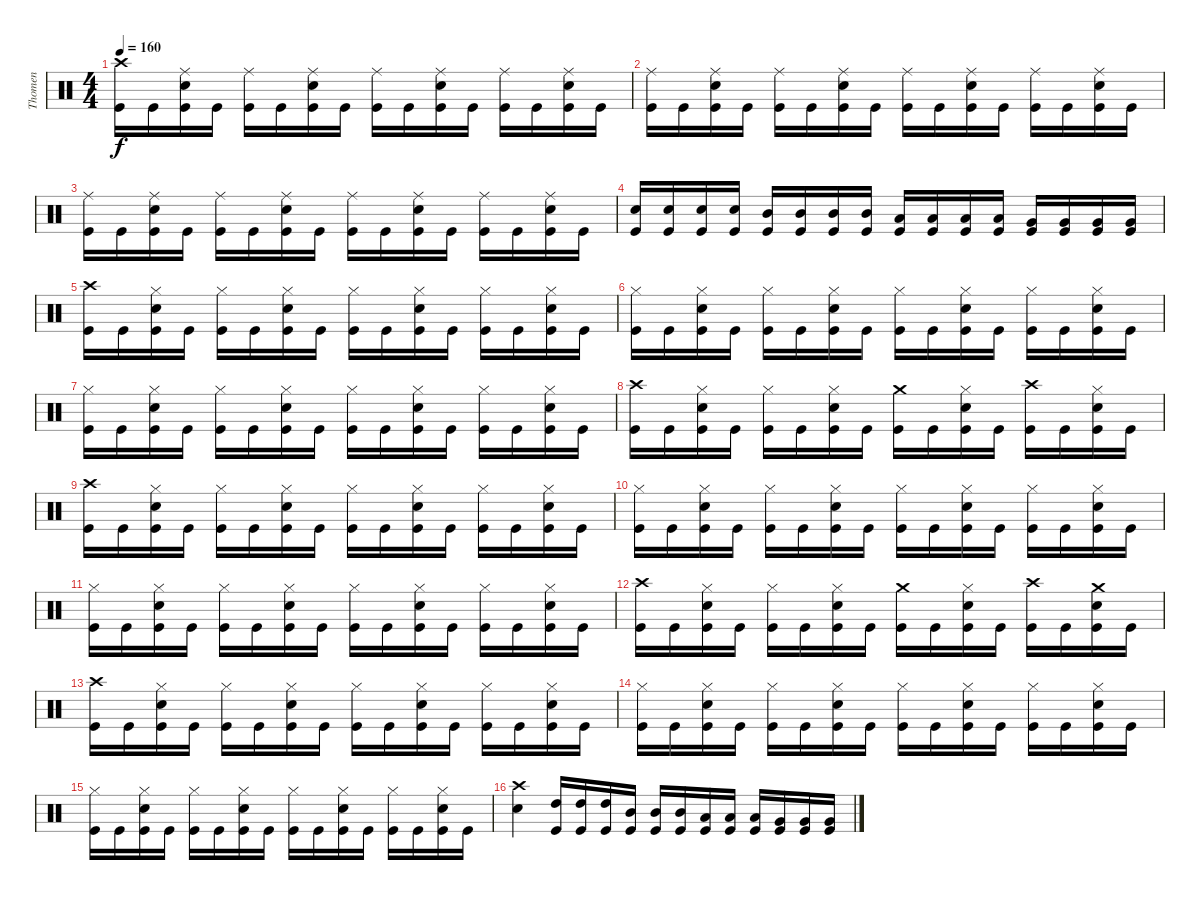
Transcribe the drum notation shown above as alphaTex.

\track ("Thomen" "Thomen") {instrument percussion}
\staff {score}
\articulation defaults
\ts (4 4)
\tempo 160
\clef neutral
\ks c
("Crash high (hit)" "Kick (hit)").16{dy f} "Kick (hit)".16 ("Ride (middle)" "Snare (hit) 2" "Kick (hit)").16 "Kick (hit)".16 ("Ride (middle)" "Kick (hit)").16 "Kick (hit)".16 ("Ride (middle)" "Snare (hit) 2" "Kick (hit)").16 "Kick (hit)".16 ("Ride (middle)" "Kick (hit)").16 "Kick (hit)".16 ("Ride (middle)" "Snare (hit) 2" "Kick (hit)").16 "Kick (hit)".16 ("Ride (middle)" "Kick (hit)").16 "Kick (hit)".16 ("Ride (middle)" "Snare (hit) 2" "Kick (hit)").16 "Kick (hit)".16 |
("Ride (middle)" "Kick (hit)").16 "Kick (hit)".16 ("Ride (middle)" "Snare (hit) 2" "Kick (hit)").16 "Kick (hit)".16 ("Ride (middle)" "Kick (hit)").16 "Kick (hit)".16 ("Ride (middle)" "Snare (hit) 2" "Kick (hit)").16 "Kick (hit)".16 ("Ride (middle)" "Kick (hit)").16 "Kick (hit)".16 ("Ride (middle)" "Snare (hit) 2" "Kick (hit)").16 "Kick (hit)".16 ("Ride (middle)" "Kick (hit)").16 "Kick (hit)".16 ("Ride (middle)" "Snare (hit) 2" "Kick (hit)").16 "Kick (hit)".16 |
("Ride (middle)" "Kick (hit)").16 "Kick (hit)".16 ("Ride (middle)" "Snare (hit) 2" "Kick (hit)").16 "Kick (hit)".16 ("Ride (middle)" "Kick (hit)").16 "Kick (hit)".16 ("Ride (middle)" "Snare (hit) 2" "Kick (hit)").16 "Kick (hit)".16 ("Ride (middle)" "Kick (hit)").16 "Kick (hit)".16 ("Ride (middle)" "Snare (hit) 2" "Kick (hit)").16 "Kick (hit)".16 ("Ride (middle)" "Kick (hit)").16 "Kick (hit)".16 ("Ride (middle)" "Snare (hit) 2" "Kick (hit)").16 "Kick (hit)".16 |
("Snare (hit) 2" "Kick (hit)").16 ("Snare (hit) 2" "Kick (hit)").16 ("Snare (hit) 2" "Kick (hit)").16 ("Snare (hit) 2" "Kick (hit)").16 ("Mid Tom (hit)" "Kick (hit)").16 ("Mid Tom (hit)" "Kick (hit)").16 ("Mid Tom (hit)" "Kick (hit)").16 ("Mid Tom (hit)" "Kick (hit)").16 ("Low Tom (hit)" "Kick (hit)").16 ("Low Tom (hit)" "Kick (hit)").16 ("Low Tom (hit)" "Kick (hit)").16 ("Low Tom (hit)" "Kick (hit)").16 ("Very Low Tom (hit)" "Kick (hit)").16 ("Very Low Tom (hit)" "Kick (hit)").16 ("Very Low Tom (hit)" "Kick (hit)").16 ("Very Low Tom (hit)" "Kick (hit)").16 |
("Crash high (hit)" "Kick (hit)").16 "Kick (hit)".16 ("Hi-Hat (closed)" "Snare (hit) 2" "Kick (hit)").16 "Kick (hit)".16 ("Hi-Hat (closed)" "Kick (hit)").16 "Kick (hit)".16 ("Hi-Hat (closed)" "Snare (hit) 2" "Kick (hit)").16 "Kick (hit)".16 ("Hi-Hat (closed)" "Kick (hit)").16 "Kick (hit)".16 ("Hi-Hat (closed)" "Snare (hit) 2" "Kick (hit)").16 "Kick (hit)".16 ("Hi-Hat (closed)" "Kick (hit)").16 "Kick (hit)".16 ("Hi-Hat (closed)" "Snare (hit) 2" "Kick (hit)").16 "Kick (hit)".16 |
("Hi-Hat (closed)" "Kick (hit)").16 "Kick (hit)".16 ("Hi-Hat (closed)" "Snare (hit) 2" "Kick (hit)").16 "Kick (hit)".16 ("Hi-Hat (closed)" "Kick (hit)").16 "Kick (hit)".16 ("Hi-Hat (closed)" "Snare (hit) 2" "Kick (hit)").16 "Kick (hit)".16 ("Hi-Hat (closed)" "Kick (hit)").16 "Kick (hit)".16 ("Hi-Hat (closed)" "Snare (hit) 2" "Kick (hit)").16 "Kick (hit)".16 ("Hi-Hat (closed)" "Kick (hit)").16 "Kick (hit)".16 ("Hi-Hat (closed)" "Snare (hit) 2" "Kick (hit)").16 "Kick (hit)".16 |
("Hi-Hat (closed)" "Kick (hit)").16 "Kick (hit)".16 ("Hi-Hat (closed)" "Snare (hit) 2" "Kick (hit)").16 "Kick (hit)".16 ("Hi-Hat (closed)" "Kick (hit)").16 "Kick (hit)".16 ("Hi-Hat (closed)" "Snare (hit) 2" "Kick (hit)").16 "Kick (hit)".16 ("Hi-Hat (closed)" "Kick (hit)").16 "Kick (hit)".16 ("Hi-Hat (closed)" "Snare (hit) 2" "Kick (hit)").16 "Kick (hit)".16 ("Hi-Hat (closed)" "Kick (hit)").16 "Kick (hit)".16 ("Hi-Hat (closed)" "Snare (hit) 2" "Kick (hit)").16 "Kick (hit)".16 |
("Crash high (hit)" "Kick (hit)").16 "Kick (hit)".16 ("Hi-Hat (closed)" "Snare (hit) 2" "Kick (hit)").16 "Kick (hit)".16 ("Hi-Hat (closed)" "Kick (hit)").16 "Kick (hit)".16 ("Hi-Hat (closed)" "Snare (hit) 2" "Kick (hit)").16 "Kick (hit)".16 ("Crash medium (hit)" "Kick (hit)").16 "Kick (hit)".16 ("Hi-Hat (closed)" "Snare (hit) 2" "Kick (hit)").16 "Kick (hit)".16 ("Crash high (hit)" "Kick (hit)").16 "Kick (hit)".16 ("Hi-Hat (closed)" "Snare (hit) 2" "Kick (hit)").16 "Kick (hit)".16 |
("Crash high (hit)" "Kick (hit)").16 "Kick (hit)".16 ("Hi-Hat (closed)" "Snare (hit) 2" "Kick (hit)").16 "Kick (hit)".16 ("Hi-Hat (closed)" "Kick (hit)").16 "Kick (hit)".16 ("Hi-Hat (closed)" "Snare (hit) 2" "Kick (hit)").16 "Kick (hit)".16 ("Hi-Hat (closed)" "Kick (hit)").16 "Kick (hit)".16 ("Hi-Hat (closed)" "Snare (hit) 2" "Kick (hit)").16 "Kick (hit)".16 ("Hi-Hat (closed)" "Kick (hit)").16 "Kick (hit)".16 ("Hi-Hat (closed)" "Snare (hit) 2" "Kick (hit)").16 "Kick (hit)".16 |
("Hi-Hat (closed)" "Kick (hit)").16 "Kick (hit)".16 ("Hi-Hat (closed)" "Snare (hit) 2" "Kick (hit)").16 "Kick (hit)".16 ("Hi-Hat (closed)" "Kick (hit)").16 "Kick (hit)".16 ("Hi-Hat (closed)" "Snare (hit) 2" "Kick (hit)").16 "Kick (hit)".16 ("Hi-Hat (closed)" "Kick (hit)").16 "Kick (hit)".16 ("Hi-Hat (closed)" "Snare (hit) 2" "Kick (hit)").16 "Kick (hit)".16 ("Hi-Hat (closed)" "Kick (hit)").16 "Kick (hit)".16 ("Hi-Hat (closed)" "Snare (hit) 2" "Kick (hit)").16 "Kick (hit)".16 |
("Hi-Hat (closed)" "Kick (hit)").16 "Kick (hit)".16 ("Hi-Hat (closed)" "Snare (hit) 2" "Kick (hit)").16 "Kick (hit)".16 ("Hi-Hat (closed)" "Kick (hit)").16 "Kick (hit)".16 ("Hi-Hat (closed)" "Snare (hit) 2" "Kick (hit)").16 "Kick (hit)".16 ("Hi-Hat (closed)" "Kick (hit)").16 "Kick (hit)".16 ("Hi-Hat (closed)" "Snare (hit) 2" "Kick (hit)").16 "Kick (hit)".16 ("Hi-Hat (closed)" "Kick (hit)").16 "Kick (hit)".16 ("Hi-Hat (closed)" "Snare (hit) 2" "Kick (hit)").16 "Kick (hit)".16 |
("Crash high (hit)" "Kick (hit)").16 "Kick (hit)".16 ("Hi-Hat (closed)" "Snare (hit) 2" "Kick (hit)").16 "Kick (hit)".16 ("Hi-Hat (closed)" "Kick (hit)").16 "Kick (hit)".16 ("Hi-Hat (closed)" "Snare (hit) 2" "Kick (hit)").16 "Kick (hit)".16 ("Crash medium (hit)" "Kick (hit)").16 "Kick (hit)".16 ("Hi-Hat (closed)" "Snare (hit) 2" "Kick (hit)").16 "Kick (hit)".16 ("Crash high (hit)" "Kick (hit)").16 "Kick (hit)".16 ("Crash medium (hit)" "Snare (hit) 2" "Kick (hit)").16 "Kick (hit)".16 |
("Crash high (hit)" "Kick (hit)").16 "Kick (hit)".16 ("Hi-Hat (closed)" "Snare (hit) 2" "Kick (hit)").16 "Kick (hit)".16 ("Hi-Hat (closed)" "Kick (hit)").16 "Kick (hit)".16 ("Hi-Hat (closed)" "Snare (hit) 2" "Kick (hit)").16 "Kick (hit)".16 ("Hi-Hat (closed)" "Kick (hit)").16 "Kick (hit)".16 ("Hi-Hat (closed)" "Snare (hit) 2" "Kick (hit)").16 "Kick (hit)".16 ("Hi-Hat (closed)" "Kick (hit)").16 "Kick (hit)".16 ("Hi-Hat (closed)" "Snare (hit) 2" "Kick (hit)").16 "Kick (hit)".16 |
("Hi-Hat (closed)" "Kick (hit)").16 "Kick (hit)".16 ("Hi-Hat (closed)" "Snare (hit) 2" "Kick (hit)").16 "Kick (hit)".16 ("Hi-Hat (closed)" "Kick (hit)").16 "Kick (hit)".16 ("Hi-Hat (closed)" "Snare (hit) 2" "Kick (hit)").16 "Kick (hit)".16 ("Hi-Hat (closed)" "Kick (hit)").16 "Kick (hit)".16 ("Hi-Hat (closed)" "Snare (hit) 2" "Kick (hit)").16 "Kick (hit)".16 ("Hi-Hat (closed)" "Kick (hit)").16 "Kick (hit)".16 ("Hi-Hat (closed)" "Snare (hit) 2" "Kick (hit)").16 "Kick (hit)".16 |
("Hi-Hat (closed)" "Kick (hit)").16 "Kick (hit)".16 ("Hi-Hat (closed)" "Snare (hit) 2" "Kick (hit)").16 "Kick (hit)".16 ("Hi-Hat (closed)" "Kick (hit)").16 "Kick (hit)".16 ("Hi-Hat (closed)" "Snare (hit) 2" "Kick (hit)").16 "Kick (hit)".16 ("Hi-Hat (closed)" "Kick (hit)").16 "Kick (hit)".16 ("Hi-Hat (closed)" "Snare (hit) 2" "Kick (hit)").16 "Kick (hit)".16 ("Hi-Hat (closed)" "Kick (hit)").16 "Kick (hit)".16 ("Hi-Hat (closed)" "Snare (hit) 2" "Kick (hit)").16 "Kick (hit)".16 |
("Crash high (hit)" "Snare (hit) 2").4 ("High Tom (hit)" "Kick (hit)").16 ("High Tom (hit)" "Kick (hit)").16 ("High Tom (hit)" "Kick (hit)").16 ("Mid Tom (hit)" "Kick (hit)").16 ("Mid Tom (hit)" "Kick (hit)").16 ("Mid Tom (hit)" "Kick (hit)").16 ("Low Tom (hit)" "Kick (hit)").16 ("Low Tom (hit)" "Kick (hit)").16 ("Low Tom (hit)" "Kick (hit)").16 ("Very Low Tom (hit)" "Kick (hit)").16 ("Very Low Tom (hit)" "Kick (hit)").16 ("Very Low Tom (hit)" "Kick (hit)").16
